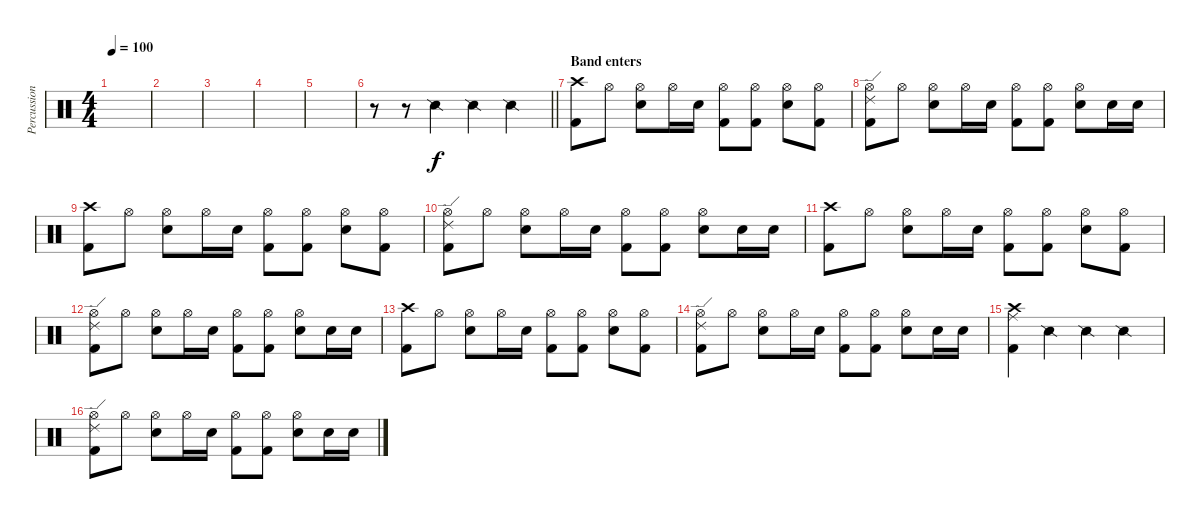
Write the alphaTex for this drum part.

\track ("Percussion" "Percussion") {instrument percussion}
\staff {score}
\articulation defaults
\ts (4 4)
\tempo 100
\clef neutral
\ks c
|
|
|
|
|
\barLineRight lightlight
r.8 r.8 "Snare (side stick) 2".4 "Snare (side stick) 2".4 "Snare (side stick) 2".4 |
\section ("" "Band enters")
("Crash high (hit)" "Kick (hit) 2").8 "Hi-Hat (open)".8 ("Hi-Hat (open)" "Snare (hit) 2").8 "Hi-Hat (open)".16 "Snare (hit) 2".16 ("Hi-Hat (open)" "Kick (hit) 2").8 ("Hi-Hat (open)" "Kick (hit) 2").8 ("Hi-Hat (open)" "Snare (hit) 2").8 ("Hi-Hat (open)" "Kick (hit) 2").8 |
("Hi-Hat (open)" "Kick (hit) 2" "Ride (edge) 2").8 "Hi-Hat (open)".8 ("Hi-Hat (open)" "Snare (hit) 2").8 "Hi-Hat (open)".16 "Snare (hit) 2".16 ("Hi-Hat (open)" "Kick (hit) 2").8 ("Hi-Hat (open)" "Kick (hit) 2").8 ("Hi-Hat (open)" "Snare (hit) 2").8 "Snare (hit) 2".16 "Snare (hit) 2".16 |
("Crash high (hit)" "Kick (hit) 2").8 "Hi-Hat (open)".8 ("Hi-Hat (open)" "Snare (hit) 2").8 "Hi-Hat (open)".16 "Snare (hit) 2".16 ("Hi-Hat (open)" "Kick (hit) 2").8 ("Hi-Hat (open)" "Kick (hit) 2").8 ("Hi-Hat (open)" "Snare (hit) 2").8 ("Hi-Hat (open)" "Kick (hit) 2").8 |
("Hi-Hat (open)" "Kick (hit) 2" "Ride (edge) 2").8 "Hi-Hat (open)".8 ("Hi-Hat (open)" "Snare (hit) 2").8 "Hi-Hat (open)".16 "Snare (hit) 2".16 ("Hi-Hat (open)" "Kick (hit) 2").8 ("Hi-Hat (open)" "Kick (hit) 2").8 ("Hi-Hat (open)" "Snare (hit) 2").8 "Snare (hit) 2".16 "Snare (hit) 2".16 |
("Crash high (hit)" "Kick (hit) 2").8 "Hi-Hat (open)".8 ("Hi-Hat (open)" "Snare (hit) 2").8 "Hi-Hat (open)".16 "Snare (hit) 2".16 ("Hi-Hat (open)" "Kick (hit) 2").8 ("Hi-Hat (open)" "Kick (hit) 2").8 ("Hi-Hat (open)" "Snare (hit) 2").8 ("Hi-Hat (open)" "Kick (hit) 2").8 |
("Hi-Hat (open)" "Kick (hit) 2" "Ride (edge) 2").8 "Hi-Hat (open)".8 ("Hi-Hat (open)" "Snare (hit) 2").8 "Hi-Hat (open)".16 "Snare (hit) 2".16 ("Hi-Hat (open)" "Kick (hit) 2").8 ("Hi-Hat (open)" "Kick (hit) 2").8 ("Hi-Hat (open)" "Snare (hit) 2").8 "Snare (hit) 2".16 "Snare (hit) 2".16 |
("Crash high (hit)" "Kick (hit) 2").8 "Hi-Hat (open)".8 ("Hi-Hat (open)" "Snare (hit) 2").8 "Hi-Hat (open)".16 "Snare (hit) 2".16 ("Hi-Hat (open)" "Kick (hit) 2").8 ("Hi-Hat (open)" "Kick (hit) 2").8 ("Hi-Hat (open)" "Snare (hit) 2").8 ("Hi-Hat (open)" "Kick (hit) 2").8 |
("Hi-Hat (open)" "Kick (hit) 2" "Ride (edge) 2").8 "Hi-Hat (open)".8 ("Hi-Hat (open)" "Snare (hit) 2").8 "Hi-Hat (open)".16 "Snare (hit) 2".16 ("Hi-Hat (open)" "Kick (hit) 2").8 ("Hi-Hat (open)" "Kick (hit) 2").8 ("Hi-Hat (open)" "Snare (hit) 2").8 "Snare (hit) 2".16 "Snare (hit) 2".16 |
("Crash high (hit)" "Kick (hit) 2" "Ride (middle)").4 "Snare (side stick) 2".4 "Snare (side stick) 2".4 "Snare (side stick) 2".4 |
("Hi-Hat (open)" "Kick (hit) 2" "Ride (edge) 2").8 "Hi-Hat (open)".8 ("Hi-Hat (open)" "Snare (hit) 2").8 "Hi-Hat (open)".16 "Snare (hit) 2".16 ("Hi-Hat (open)" "Kick (hit) 2").8 ("Hi-Hat (open)" "Kick (hit) 2").8 ("Hi-Hat (open)" "Snare (hit) 2").8 "Snare (hit) 2".16 "Snare (hit) 2".16
